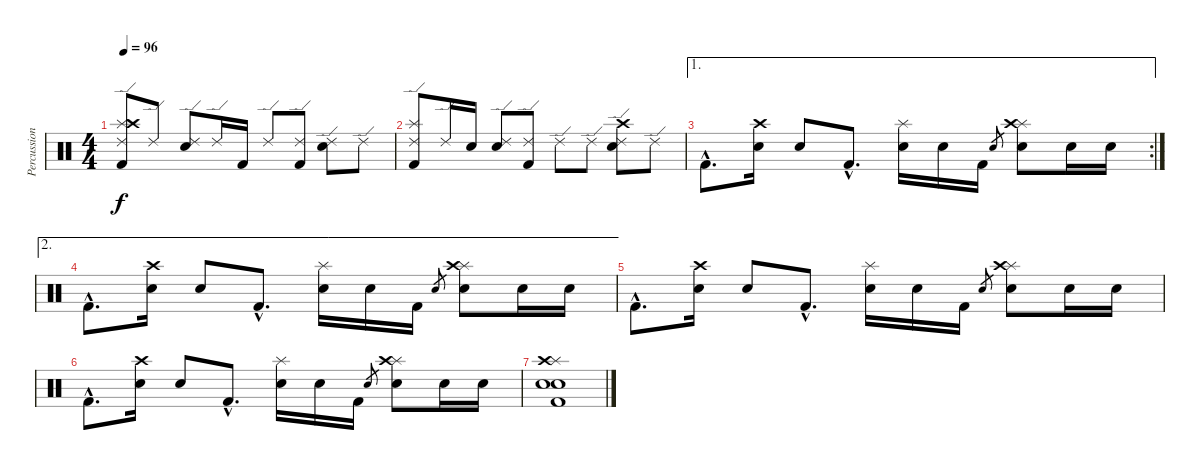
\track ("Percussion" "Percussion") {instrument percussion}
\staff {score}
\articulation defaults
\ts (4 4)
\tempo 96
\clef neutral
\ks c
("Ride (edge) 2" "Splash (hit)" "Crash high (hit)" "Kick (hit) 2").8{dy f} "Ride (edge) 2".8 ("Ride (edge) 2" "Electric Snare (hit)").8 "Ride (edge) 2".16 "Kick (hit) 2".16 "Ride (edge) 2".8 ("Ride (edge) 2" "Kick (hit) 2").8 ("Ride (edge) 2" "Electric Snare (hit)").8 "Ride (edge) 2".8 |
("Ride (edge) 2" "Splash (hit)" "Kick (hit) 2").8 "Ride (edge) 2".16 "Electric Snare (hit)".16 ("Ride (edge) 2" "Electric Snare (hit)").8 ("Ride (edge) 2" "Kick (hit) 2").8 "Ride (edge) 2".8 "Ride (edge) 2".8 ("Ride (edge) 2" "Crash high (hit)" "Electric Snare (hit)").8 "Ride (edge) 2".8 |
\ae 1
\rc 2 "Kick (hit) 2"{hac}.8{d}
("Crash high (hit)" "Electric Snare (hit)").16 "Electric Snare (hit)".8 "Kick (hit) 2"{hac}.8{d} ("Splash (hit)" "Electric Snare (hit)").16 "Electric Snare (hit)".16 "Kick (hit) 2".16 "Electric Snare (hit)"{sl}.8{gr} ("Splash (hit)" "Crash high (hit)" "Electric Snare (hit)").8 "Electric Snare (hit)".16 "Electric Snare (hit)".16 |
\ae 2 "Kick (hit) 2"{hac}.8{d}
("Crash high (hit)" "Electric Snare (hit)").16 "Electric Snare (hit)".8 "Kick (hit) 2"{hac}.8{d} ("Splash (hit)" "Electric Snare (hit)").16 "Electric Snare (hit)".16 "Kick (hit) 2".16 "Electric Snare (hit)"{sl}.8{gr} ("Splash (hit)" "Crash high (hit)" "Electric Snare (hit)").8 "Electric Snare (hit)".16 "Electric Snare (hit)".16 |
"Kick (hit) 2"{hac}.8{d} ("Crash high (hit)" "Electric Snare (hit)").16 "Electric Snare (hit)".8 "Kick (hit) 2"{hac}.8{d} ("Splash (hit)" "Electric Snare (hit)").16 "Electric Snare (hit)".16 "Kick (hit) 2".16 "Electric Snare (hit)"{sl}.8{gr} ("Splash (hit)" "Crash high (hit)" "Electric Snare (hit)").8 "Electric Snare (hit)".16 "Electric Snare (hit)".16 |
"Kick (hit) 2"{hac}.8{d} ("Crash high (hit)" "Electric Snare (hit)").16 "Electric Snare (hit)".8 "Kick (hit) 2"{hac}.8{d} ("Splash (hit)" "Electric Snare (hit)").16 "Electric Snare (hit)".16 "Kick (hit) 2".16 "Electric Snare (hit)"{sl}.8{gr} ("Splash (hit)" "Crash high (hit)" "Electric Snare (hit)").8 "Electric Snare (hit)".16 "Electric Snare (hit)".16 |
("Splash (hit)" "Crash high (hit)" "Electric Snare (hit)" "Snare (hit) 2" "Kick (hit) 2").1
